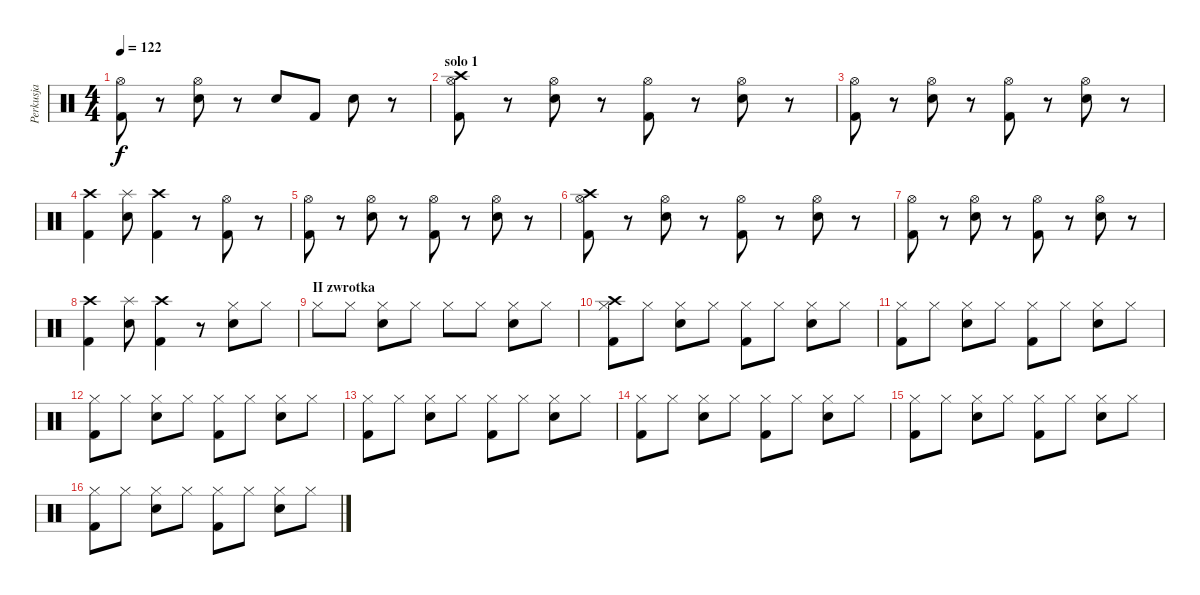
\track ("Perkusja" "Perkusja") {instrument percussion}
\staff {score}
\articulation defaults
\ts (4 4)
\tempo 122
\clef neutral
\ks c
("Kick (hit) 2" "Hi-Hat (open)").8{dy f} r.8 ("Snare (hit) 2" "Hi-Hat (open)").8 r.8 "Snare (hit) 2".8 "Kick (hit) 2".8 "Snare (hit) 2".8 r.8 |
\section ("" "solo 1")
("Kick (hit) 2" "Hi-Hat (open)" "Crash high (hit)").8 r.8 ("Snare (hit) 2" "Hi-Hat (open)").8 r.8 ("Kick (hit) 2" "Hi-Hat (open)").8 r.8 ("Snare (hit) 2" "Hi-Hat (open)").8 r.8 |
("Kick (hit) 2" "Hi-Hat (open)").8 r.8 ("Snare (hit) 2" "Hi-Hat (open)").8 r.8 ("Kick (hit) 2" "Hi-Hat (open)").8 r.8 ("Snare (hit) 2" "Hi-Hat (open)").8 r.8 |
("Kick (hit) 2" "Crash high (hit)").4 ("Snare (hit) 2" "Splash (hit)").8 ("Kick (hit) 2" "Crash high (hit)").4 r.8 ("Hi-Hat (open)" "Kick (hit) 2").8 r.8 |
("Kick (hit) 2" "Hi-Hat (open)").8 r.8 ("Snare (hit) 2" "Hi-Hat (open)").8 r.8 ("Kick (hit) 2" "Hi-Hat (open)").8 r.8 ("Snare (hit) 2" "Hi-Hat (open)").8 r.8 |
("Kick (hit) 2" "Hi-Hat (open)" "Crash high (hit)").8 r.8 ("Snare (hit) 2" "Hi-Hat (open)").8 r.8 ("Kick (hit) 2" "Hi-Hat (open)").8 r.8 ("Snare (hit) 2" "Hi-Hat (open)").8 r.8 |
("Kick (hit) 2" "Hi-Hat (open)").8 r.8 ("Snare (hit) 2" "Hi-Hat (open)").8 r.8 ("Kick (hit) 2" "Hi-Hat (open)").8 r.8 ("Snare (hit) 2" "Hi-Hat (open)").8 r.8 |
("Kick (hit) 2" "Crash high (hit)").4 ("Snare (hit) 2" "Splash (hit)").8 ("Kick (hit) 2" "Crash high (hit)").4 r.8 ("Hi-Hat (closed)" "Snare (hit) 2").8 "Hi-Hat (closed)".8 |
\section ("" "II zwrotka")
"Hi-Hat (closed)".8 "Hi-Hat (closed)".8 ("Snare (hit) 2" "Hi-Hat (closed)").8 "Hi-Hat (closed)".8 "Hi-Hat (closed)".8 "Hi-Hat (closed)".8 ("Snare (hit) 2" "Hi-Hat (closed)").8 "Hi-Hat (closed)".8 |
("Kick (hit) 2" "Hi-Hat (closed)" "Crash high (hit)").8 "Hi-Hat (closed)".8 ("Snare (hit) 2" "Hi-Hat (closed)").8 "Hi-Hat (closed)".8 ("Kick (hit) 2" "Hi-Hat (closed)").8 "Hi-Hat (closed)".8 ("Snare (hit) 2" "Hi-Hat (closed)").8 "Hi-Hat (closed)".8 |
("Kick (hit) 2" "Hi-Hat (closed)").8 "Hi-Hat (closed)".8 ("Snare (hit) 2" "Hi-Hat (closed)").8 "Hi-Hat (closed)".8 ("Kick (hit) 2" "Hi-Hat (closed)").8 "Hi-Hat (closed)".8 ("Snare (hit) 2" "Hi-Hat (closed)").8 "Hi-Hat (closed)".8 |
("Kick (hit) 2" "Hi-Hat (closed)").8 "Hi-Hat (closed)".8 ("Snare (hit) 2" "Hi-Hat (closed)").8 "Hi-Hat (closed)".8 ("Kick (hit) 2" "Hi-Hat (closed)").8 "Hi-Hat (closed)".8 ("Snare (hit) 2" "Hi-Hat (closed)").8 "Hi-Hat (closed)".8 |
("Kick (hit) 2" "Hi-Hat (closed)").8 "Hi-Hat (closed)".8 ("Snare (hit) 2" "Hi-Hat (closed)").8 "Hi-Hat (closed)".8 ("Kick (hit) 2" "Hi-Hat (closed)").8 "Hi-Hat (closed)".8 ("Snare (hit) 2" "Hi-Hat (closed)").8 "Hi-Hat (closed)".8 |
("Kick (hit) 2" "Hi-Hat (closed)").8 "Hi-Hat (closed)".8 ("Snare (hit) 2" "Hi-Hat (closed)").8 "Hi-Hat (closed)".8 ("Kick (hit) 2" "Hi-Hat (closed)").8 "Hi-Hat (closed)".8 ("Snare (hit) 2" "Hi-Hat (closed)").8 "Hi-Hat (closed)".8 |
("Kick (hit) 2" "Hi-Hat (closed)").8 "Hi-Hat (closed)".8 ("Snare (hit) 2" "Hi-Hat (closed)").8 "Hi-Hat (closed)".8 ("Kick (hit) 2" "Hi-Hat (closed)").8 "Hi-Hat (closed)".8 ("Snare (hit) 2" "Hi-Hat (closed)").8 "Hi-Hat (closed)".8 |
("Kick (hit) 2" "Hi-Hat (closed)").8 "Hi-Hat (closed)".8 ("Snare (hit) 2" "Hi-Hat (closed)").8 "Hi-Hat (closed)".8 ("Kick (hit) 2" "Hi-Hat (closed)").8 "Hi-Hat (closed)".8 ("Snare (hit) 2" "Hi-Hat (closed)").8 "Hi-Hat (closed)".8
